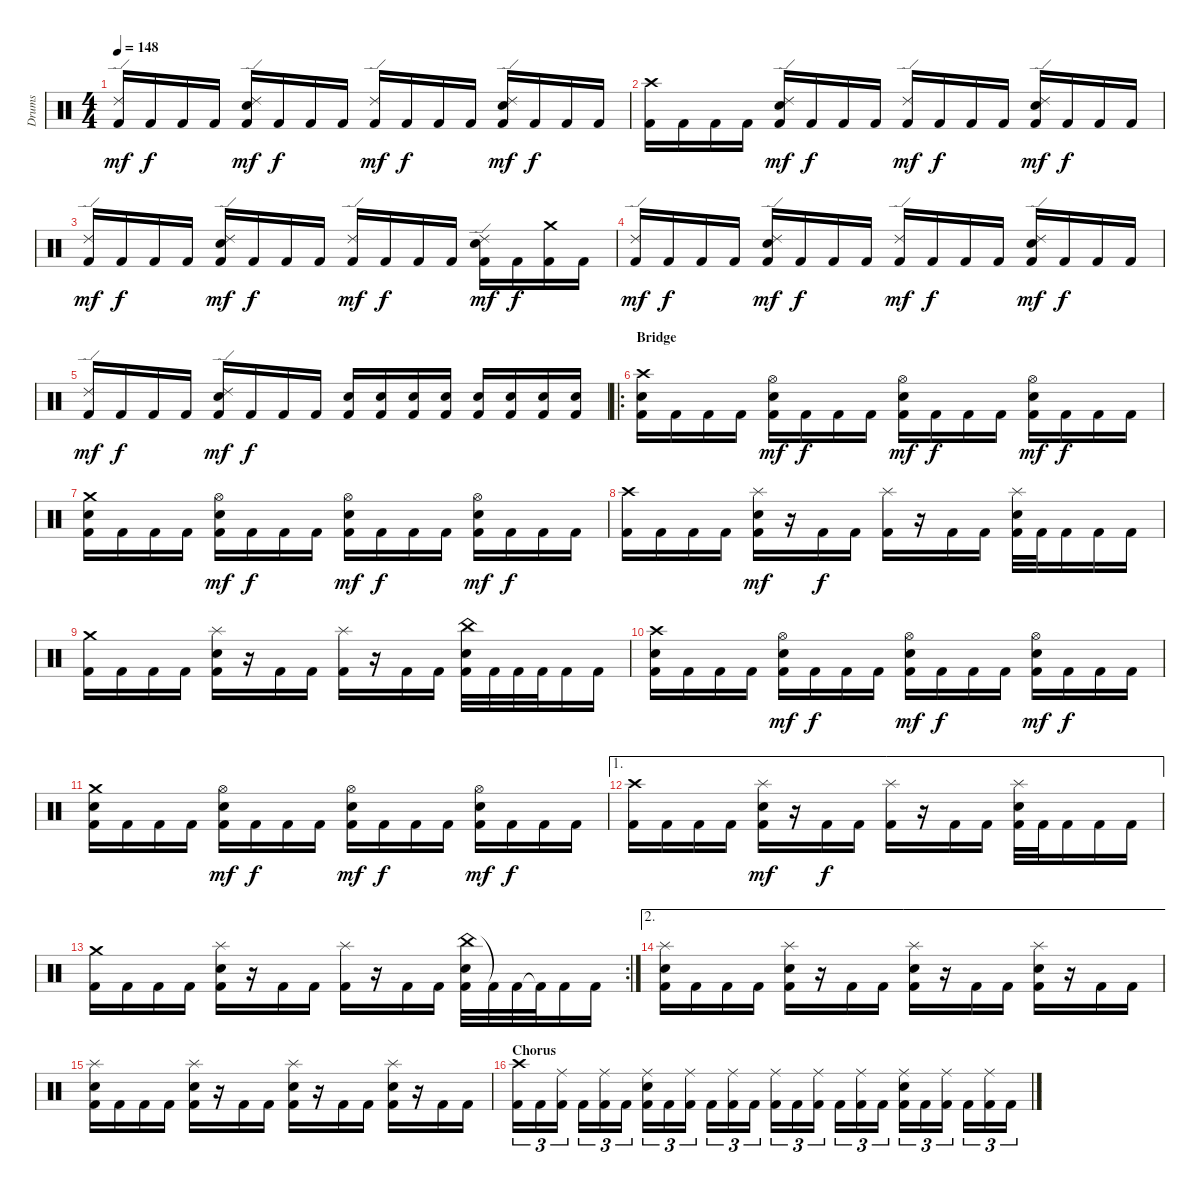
\track ("Drums" "Drums") {instrument percussion}
\staff {score}
\articulation defaults
\ts (4 4)
\tempo 148
\clef neutral
\ks c
("Ride (edge) 2" "Kick (hit) 2").16{dy mf} "Kick (hit) 2".16{dy f} "Kick (hit) 2".16 "Kick (hit) 2".16 ("Ride (edge) 2" "Snare (hit) 2" "Kick (hit) 2").16{dy mf} "Kick (hit) 2".16{dy f} "Kick (hit) 2".16 "Kick (hit) 2".16 ("Ride (edge) 2" "Kick (hit) 2").16{dy mf} "Kick (hit) 2".16{dy f} "Kick (hit) 2".16 "Kick (hit) 2".16 ("Ride (edge) 2" "Snare (hit) 2" "Kick (hit) 2").16{dy mf} "Kick (hit) 2".16{dy f} "Kick (hit) 2".16 "Kick (hit) 2".16 |
("Crash high (hit)" "Kick (hit) 2").16 "Kick (hit) 2".16 "Kick (hit) 2".16 "Kick (hit) 2".16 ("Ride (edge) 2" "Snare (hit) 2" "Kick (hit) 2").16{dy mf} "Kick (hit) 2".16{dy f} "Kick (hit) 2".16 "Kick (hit) 2".16 ("Ride (edge) 2" "Kick (hit) 2").16{dy mf} "Kick (hit) 2".16{dy f} "Kick (hit) 2".16 "Kick (hit) 2".16 ("Ride (edge) 2" "Snare (hit) 2" "Kick (hit) 2").16{dy mf} "Kick (hit) 2".16{dy f} "Kick (hit) 2".16 "Kick (hit) 2".16 |
("Ride (edge) 2" "Kick (hit) 2").16{dy mf} "Kick (hit) 2".16{dy f} "Kick (hit) 2".16 "Kick (hit) 2".16 ("Ride (edge) 2" "Snare (hit) 2" "Kick (hit) 2").16{dy mf} "Kick (hit) 2".16{dy f} "Kick (hit) 2".16 "Kick (hit) 2".16 ("Ride (edge) 2" "Kick (hit) 2").16{dy mf} "Kick (hit) 2".16{dy f} "Kick (hit) 2".16 "Kick (hit) 2".16 ("Ride (edge) 2" "Snare (hit) 2" "Kick (hit) 2").16{dy mf} "Kick (hit) 2".16{dy f} ("Crash medium (hit)" "Kick (hit) 2").16 "Kick (hit) 2".16 |
("Ride (edge) 2" "Kick (hit) 2").16{dy mf} "Kick (hit) 2".16{dy f} "Kick (hit) 2".16 "Kick (hit) 2".16 ("Ride (edge) 2" "Snare (hit) 2" "Kick (hit) 2").16{dy mf} "Kick (hit) 2".16{dy f} "Kick (hit) 2".16 "Kick (hit) 2".16 ("Ride (edge) 2" "Kick (hit) 2").16{dy mf} "Kick (hit) 2".16{dy f} "Kick (hit) 2".16 "Kick (hit) 2".16 ("Ride (edge) 2" "Snare (hit) 2" "Kick (hit) 2").16{dy mf} "Kick (hit) 2".16{dy f} "Kick (hit) 2".16 "Kick (hit) 2".16 |
("Ride (edge) 2" "Kick (hit) 2").16{dy mf} "Kick (hit) 2".16{dy f} "Kick (hit) 2".16 "Kick (hit) 2".16 ("Ride (edge) 2" "Snare (hit) 2" "Kick (hit) 2").16{dy mf} "Kick (hit) 2".16{dy f} "Kick (hit) 2".16 "Kick (hit) 2".16 ("Snare (hit) 2" "Kick (hit) 2").16 ("Snare (hit) 2" "Kick (hit) 2").16 ("Snare (hit) 2" "Kick (hit) 2").16 ("Snare (hit) 2" "Kick (hit) 2").16 ("Snare (hit) 2" "Kick (hit) 2").16 ("Snare (hit) 2" "Kick (hit) 2").16 ("Snare (hit) 2" "Kick (hit) 2").16 ("Snare (hit) 2" "Kick (hit) 2").16 |
\ro
\section ("" "Bridge")
("Crash high (hit)" "Snare (hit) 2" "Kick (hit) 2").16 "Kick (hit) 2".16 "Kick (hit) 2".16 "Kick (hit) 2".16 ("Hi-Hat (open)" "Snare (hit) 2" "Kick (hit) 2").16{dy mf} "Kick (hit) 2".16{dy f} "Kick (hit) 2".16 "Kick (hit) 2".16 ("Hi-Hat (open)" "Snare (hit) 2" "Kick (hit) 2").16{dy mf} "Kick (hit) 2".16{dy f} "Kick (hit) 2".16 "Kick (hit) 2".16 ("Hi-Hat (open)" "Snare (hit) 2" "Kick (hit) 2").16{dy mf} "Kick (hit) 2".16{dy f} "Kick (hit) 2".16 "Kick (hit) 2".16 |
("Crash medium (hit)" "Snare (hit) 2" "Kick (hit) 2").16 "Kick (hit) 2".16 "Kick (hit) 2".16 "Kick (hit) 2".16 ("Hi-Hat (open)" "Snare (hit) 2" "Kick (hit) 2").16{dy mf} "Kick (hit) 2".16{dy f} "Kick (hit) 2".16 "Kick (hit) 2".16 ("Hi-Hat (open)" "Snare (hit) 2" "Kick (hit) 2").16{dy mf} "Kick (hit) 2".16{dy f} "Kick (hit) 2".16 "Kick (hit) 2".16 ("Hi-Hat (open)" "Snare (hit) 2" "Kick (hit) 2").16{dy mf} "Kick (hit) 2".16{dy f} "Kick (hit) 2".16 "Kick (hit) 2".16 |
("Crash high (hit)" "Kick (hit) 2").16 "Kick (hit) 2".16 "Kick (hit) 2".16 "Kick (hit) 2".16 ("Splash (hit)" "Snare (hit) 2" "Kick (hit) 2").16{dy mf} r.16 "Kick (hit) 2".16{dy f} "Kick (hit) 2".16 ("Splash (hit)" "Kick (hit) 2").16 r.16 "Kick (hit) 2".16 "Kick (hit) 2".16 ("Splash (hit)" "Snare (hit) 2" "Kick (hit) 2").32 "Kick (hit) 2".32 "Kick (hit) 2".16 "Kick (hit) 2".16 "Kick (hit) 2".16 |
("Crash medium (hit)" "Kick (hit) 2").16 "Kick (hit) 2".16 "Kick (hit) 2".16 "Kick (hit) 2".16 ("Splash (hit)" "Snare (hit) 2" "Kick (hit) 2").16 r.16 "Kick (hit) 2".16 "Kick (hit) 2".16 ("Splash (hit)" "Kick (hit) 2").16 r.16 "Kick (hit) 2".16 "Kick (hit) 2".16 ("China (hit)" "Snare (hit) 2" "Kick (hit) 2").32 "Kick (hit) 2".32 "Kick (hit) 2".32 "Kick (hit) 2".32 "Kick (hit) 2".16 "Kick (hit) 2".16 |
("Crash high (hit)" "Snare (hit) 2" "Kick (hit) 2").16 "Kick (hit) 2".16 "Kick (hit) 2".16 "Kick (hit) 2".16 ("Hi-Hat (open)" "Snare (hit) 2" "Kick (hit) 2").16{dy mf} "Kick (hit) 2".16{dy f} "Kick (hit) 2".16 "Kick (hit) 2".16 ("Hi-Hat (open)" "Snare (hit) 2" "Kick (hit) 2").16{dy mf} "Kick (hit) 2".16{dy f} "Kick (hit) 2".16 "Kick (hit) 2".16 ("Hi-Hat (open)" "Snare (hit) 2" "Kick (hit) 2").16{dy mf} "Kick (hit) 2".16{dy f} "Kick (hit) 2".16 "Kick (hit) 2".16 |
("Crash medium (hit)" "Snare (hit) 2" "Kick (hit) 2").16 "Kick (hit) 2".16 "Kick (hit) 2".16 "Kick (hit) 2".16 ("Hi-Hat (open)" "Snare (hit) 2" "Kick (hit) 2").16{dy mf} "Kick (hit) 2".16{dy f} "Kick (hit) 2".16 "Kick (hit) 2".16 ("Hi-Hat (open)" "Snare (hit) 2" "Kick (hit) 2").16{dy mf} "Kick (hit) 2".16{dy f} "Kick (hit) 2".16 "Kick (hit) 2".16 ("Hi-Hat (open)" "Snare (hit) 2" "Kick (hit) 2").16{dy mf} "Kick (hit) 2".16{dy f} "Kick (hit) 2".16 "Kick (hit) 2".16 |
\ae 1
("Crash high (hit)" "Kick (hit) 2").16 "Kick (hit) 2".16 "Kick (hit) 2".16 "Kick (hit) 2".16 ("Splash (hit)" "Snare (hit) 2" "Kick (hit) 2").16{dy mf} r.16 "Kick (hit) 2".16{dy f} "Kick (hit) 2".16 ("Splash (hit)" "Kick (hit) 2").16 r.16 "Kick (hit) 2".16 "Kick (hit) 2".16 ("Splash (hit)" "Snare (hit) 2" "Kick (hit) 2").32 "Kick (hit) 2".32 "Kick (hit) 2".16 "Kick (hit) 2".16 "Kick (hit) 2".16 |
\rc 2
("Crash medium (hit)" "Kick (hit) 2").16 "Kick (hit) 2".16 "Kick (hit) 2".16 "Kick (hit) 2".16 ("Splash (hit)" "Snare (hit) 2" "Kick (hit) 2").16 r.16 "Kick (hit) 2".16 "Kick (hit) 2".16 ("Splash (hit)" "Kick (hit) 2").16 r.16 "Kick (hit) 2".16 "Kick (hit) 2".16 ("China (hit)" "Snare (hit) 2" "Kick (hit) 2").32 "Kick (hit) 2"{t}.32 "Kick (hit) 2".32 "Kick (hit) 2"{t}.32 "Kick (hit) 2".16 "Kick (hit) 2".16 |
\ae 2
("Splash (hit)" "Snare (hit) 2" "Kick (hit) 2").16 "Kick (hit) 2".16 "Kick (hit) 2".16 "Kick (hit) 2".16 ("Splash (hit)" "Snare (hit) 2" "Kick (hit) 2").16 r.16 "Kick (hit) 2".16 "Kick (hit) 2".16 ("Splash (hit)" "Snare (hit) 2" "Kick (hit) 2").16 r.16 "Kick (hit) 2".16 "Kick (hit) 2".16 ("Splash (hit)" "Snare (hit) 2" "Kick (hit) 2").16 r.16 "Kick (hit) 2".16 "Kick (hit) 2".16 |
("Splash (hit)" "Snare (hit) 2" "Kick (hit) 2").16 "Kick (hit) 2".16 "Kick (hit) 2".16 "Kick (hit) 2".16 ("Splash (hit)" "Snare (hit) 2" "Kick (hit) 2").16 r.16 "Kick (hit) 2".16 "Kick (hit) 2".16 ("Splash (hit)" "Snare (hit) 2" "Kick (hit) 2").16 r.16 "Kick (hit) 2".16 "Kick (hit) 2".16 ("Splash (hit)" "Snare (hit) 2" "Kick (hit) 2").16 r.16 "Kick (hit) 2".16 "Kick (hit) 2".16 |
\section ("" "Chorus")
("Crash high (hit)" "Kick (hit) 2").16{tu (3 2)} "Kick (hit) 2".16{tu (3 2)} ("Ride (middle)" "Kick (hit) 2").16{tu (3 2)} "Kick (hit) 2".16{tu (3 2)} ("Ride (middle)" "Kick (hit) 2").16{tu (3 2)} "Kick (hit) 2".16{tu (3 2)} ("Ride (middle)" "Snare (hit) 2" "Kick (hit) 2").16{tu (3 2)} "Kick (hit) 2".16{tu (3 2)} ("Ride (middle)" "Kick (hit) 2").16{tu (3 2)} "Kick (hit) 2".16{tu (3 2)} ("Ride (middle)" "Kick (hit) 2").16{tu (3 2)} "Kick (hit) 2".16{tu (3 2)} ("Ride (middle)" "Kick (hit) 2").16{tu (3 2)} "Kick (hit) 2".16{tu (3 2)} ("Ride (middle)" "Kick (hit) 2").16{tu (3 2)} "Kick (hit) 2".16{tu (3 2)} ("Ride (middle)" "Kick (hit) 2").16{tu (3 2)} "Kick (hit) 2".16{tu (3 2)} ("Ride (middle)" "Snare (hit) 2" "Kick (hit) 2").16{tu (3 2)} "Kick (hit) 2".16{tu (3 2)} ("Ride (middle)" "Kick (hit) 2").16{tu (3 2)} "Kick (hit) 2".16{tu (3 2)} ("Ride (middle)" "Kick (hit) 2").16{tu (3 2)} "Kick (hit) 2".16{tu (3 2)}
